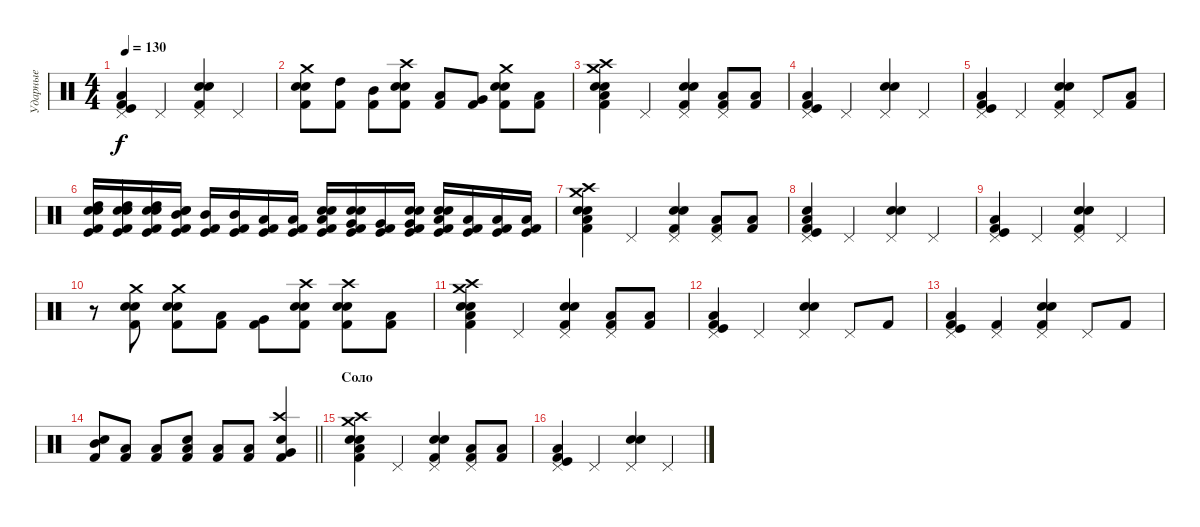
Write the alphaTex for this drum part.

\track ("Ударные" "Ударные") {instrument percussion}
\staff {score}
\articulation defaults
\ts (4 4)
\tempo 130
\clef neutral
\ks c
("Kick (hit) 2" "Kick (hit)" "Pedal Hi-Hat (hit)" "Low Floor Tom (hit)").4{dy f} "Pedal Hi-Hat (hit)".4 ("Kick (hit) 2" "Pedal Hi-Hat (hit)" "Snare (hit) 2" "Electric Snare (hit)").4 "Pedal Hi-Hat (hit)".4 |
("Crash medium (hit)" "Electric Snare (hit)" "Snare (hit) 2" "Kick (hit) 2").8 ("Kick (hit) 2" "High Tom (hit)").8 ("Mid Tom (hit)" "Kick (hit) 2").8 ("Crash high (hit)" "Electric Snare (hit)" "Snare (hit) 2" "Kick (hit) 2").8 ("Kick (hit) 2" "Low Tom (hit)").8 ("Kick (hit) 2" "Very Low Tom (hit)").8 ("Crash medium (hit)" "Electric Snare (hit)" "Snare (hit) 2" "Kick (hit) 2").8 ("Kick (hit) 2" "Low Floor Tom (hit)").8 |
("Kick (hit) 2" "Electric Snare (hit)" "Snare (hit) 2" "Crash high (hit)" "Crash medium (hit)" "Low Floor Tom (hit)").4 "Pedal Hi-Hat (hit)".4 ("Pedal Hi-Hat (hit)" "Kick (hit) 2" "Snare (hit) 2" "Electric Snare (hit)").4 ("Kick (hit) 2" "Pedal Hi-Hat (hit)" "Low Floor Tom (hit)").8 ("Low Floor Tom (hit)" "Kick (hit) 2").8 |
("Kick (hit) 2" "Kick (hit)" "Pedal Hi-Hat (hit)" "Low Floor Tom (hit)").4 "Pedal Hi-Hat (hit)".4 ("Pedal Hi-Hat (hit)" "Snare (hit) 2" "Electric Snare (hit)").4 "Pedal Hi-Hat (hit)".4 |
("Kick (hit) 2" "Kick (hit)" "Pedal Hi-Hat (hit)" "Low Floor Tom (hit)").4 "Pedal Hi-Hat (hit)".4 ("Kick (hit) 2" "Pedal Hi-Hat (hit)" "Snare (hit) 2" "Electric Snare (hit)").4 "Pedal Hi-Hat (hit)".8 ("Kick (hit) 2" "Low Floor Tom (hit)").8 |
("High Tom (hit)" "Snare (hit) 2" "Electric Snare (hit)" "Kick (hit)" "Kick (hit) 2").16 ("High Tom (hit)" "Snare (hit) 2" "Electric Snare (hit)" "Kick (hit)" "Kick (hit) 2").16 ("High Tom (hit)" "Snare (hit) 2" "Electric Snare (hit)" "Kick (hit)" "Kick (hit) 2").16 ("Mid Tom (hit)" "Snare (hit) 2" "Electric Snare (hit)" "Kick (hit)" "Kick (hit) 2").16 ("Mid Tom (hit)" "Kick (hit)" "Kick (hit) 2").16 ("Mid Tom (hit)" "Kick (hit)" "Kick (hit) 2").16 ("Low Tom (hit)" "Kick (hit)" "Kick (hit) 2").16 ("Low Tom (hit)" "Kick (hit)" "Kick (hit) 2").16 ("Low Tom (hit)" "Snare (hit) 2" "Electric Snare (hit)" "Kick (hit)" "Kick (hit) 2").16 ("Very Low Tom (hit)" "Snare (hit) 2" "Electric Snare (hit)" "Kick (hit)" "Kick (hit) 2").16 ("Very Low Tom (hit)" "Kick (hit)" "Kick (hit) 2").16 ("Very Low Tom (hit)" "Snare (hit) 2" "Electric Snare (hit)" "Kick (hit)" "Kick (hit) 2").16 ("Low Floor Tom (hit)" "Snare (hit) 2" "Electric Snare (hit)" "Kick (hit)" "Kick (hit) 2").16 ("Low Floor Tom (hit)" "Kick (hit)" "Kick (hit) 2").16 ("Low Floor Tom (hit)" "Kick (hit)" "Kick (hit) 2").16 ("Low Floor Tom (hit)" "Kick (hit)" "Kick (hit) 2").16 |
("Kick (hit) 2" "Electric Snare (hit)" "Snare (hit) 2" "Crash high (hit)" "Crash medium (hit)" "Low Floor Tom (hit)").4 "Pedal Hi-Hat (hit)".4 ("Pedal Hi-Hat (hit)" "Kick (hit) 2" "Snare (hit) 2" "Electric Snare (hit)").4 ("Kick (hit) 2" "Pedal Hi-Hat (hit)" "Low Floor Tom (hit)").8 ("Low Floor Tom (hit)" "Kick (hit) 2").8 |
("Electric Snare (hit)" "Kick (hit) 2" "Kick (hit)" "Pedal Hi-Hat (hit)" "Low Floor Tom (hit)").4 "Pedal Hi-Hat (hit)".4 ("Pedal Hi-Hat (hit)" "Snare (hit) 2" "Electric Snare (hit)").4 "Pedal Hi-Hat (hit)".4 |
("Kick (hit) 2" "Kick (hit)" "Pedal Hi-Hat (hit)" "Low Floor Tom (hit)").4 "Pedal Hi-Hat (hit)".4 ("Kick (hit) 2" "Pedal Hi-Hat (hit)" "Snare (hit) 2" "Electric Snare (hit)").4 "Pedal Hi-Hat (hit)".4 |
r.8 ("Crash medium (hit)" "Electric Snare (hit)" "Snare (hit) 2" "Kick (hit) 2").8 ("Crash medium (hit)" "Electric Snare (hit)" "Snare (hit) 2" "Kick (hit) 2").8 ("Kick (hit) 2" "Low Tom (hit)").8 ("Kick (hit) 2" "Very Low Tom (hit)").8 ("Crash high (hit)" "Electric Snare (hit)" "Snare (hit) 2" "Kick (hit) 2").8 ("Crash high (hit)" "Electric Snare (hit)" "Snare (hit) 2" "Kick (hit) 2").8 ("Low Floor Tom (hit)" "Kick (hit) 2").8 |
("Kick (hit) 2" "Electric Snare (hit)" "Snare (hit) 2" "Crash high (hit)" "Crash medium (hit)" "Low Floor Tom (hit)").4 "Pedal Hi-Hat (hit)".4 ("Pedal Hi-Hat (hit)" "Kick (hit) 2" "Snare (hit) 2" "Electric Snare (hit)").4 ("Kick (hit) 2" "Pedal Hi-Hat (hit)" "Low Floor Tom (hit)").8 ("Low Floor Tom (hit)" "Kick (hit) 2").8 |
("Kick (hit) 2" "Kick (hit)" "Pedal Hi-Hat (hit)" "Low Floor Tom (hit)").4 "Pedal Hi-Hat (hit)".4 ("Pedal Hi-Hat (hit)" "Snare (hit) 2" "Electric Snare (hit)").4 "Pedal Hi-Hat (hit)".8 "Kick (hit) 2".8 |
("Kick (hit) 2" "Kick (hit)" "Pedal Hi-Hat (hit)" "Low Floor Tom (hit)").4 ("Kick (hit) 2" "Pedal Hi-Hat (hit)").4 ("Kick (hit) 2" "Pedal Hi-Hat (hit)" "Snare (hit) 2" "Electric Snare (hit)").4 "Pedal Hi-Hat (hit)".8 "Kick (hit) 2".8 |
\barLineRight lightlight
("Electric Snare (hit)" "Mid Tom (hit)" "Kick (hit) 2").8 ("Low Floor Tom (hit)" "Kick (hit) 2").8 ("Low Floor Tom (hit)" "Kick (hit) 2").8 ("Electric Snare (hit)" "Low Tom (hit)" "Kick (hit) 2").8 ("Low Floor Tom (hit)" "Kick (hit) 2").8 ("Low Floor Tom (hit)" "Kick (hit) 2").8 ("Electric Snare (hit)" "Very Low Tom (hit)" "Kick (hit) 2" "Crash high (hit)").4 |
\section ("" "Соло")
("Kick (hit) 2" "Electric Snare (hit)" "Snare (hit) 2" "Crash high (hit)" "Crash medium (hit)" "Low Floor Tom (hit)").4 "Pedal Hi-Hat (hit)".4 ("Pedal Hi-Hat (hit)" "Kick (hit) 2" "Snare (hit) 2" "Electric Snare (hit)").4 ("Kick (hit) 2" "Pedal Hi-Hat (hit)" "Low Floor Tom (hit)").8 ("Low Floor Tom (hit)" "Kick (hit) 2").8 |
("Kick (hit) 2" "Kick (hit)" "Pedal Hi-Hat (hit)" "Low Floor Tom (hit)").4 "Pedal Hi-Hat (hit)".4 ("Pedal Hi-Hat (hit)" "Snare (hit) 2" "Electric Snare (hit)").4 "Pedal Hi-Hat (hit)".4
